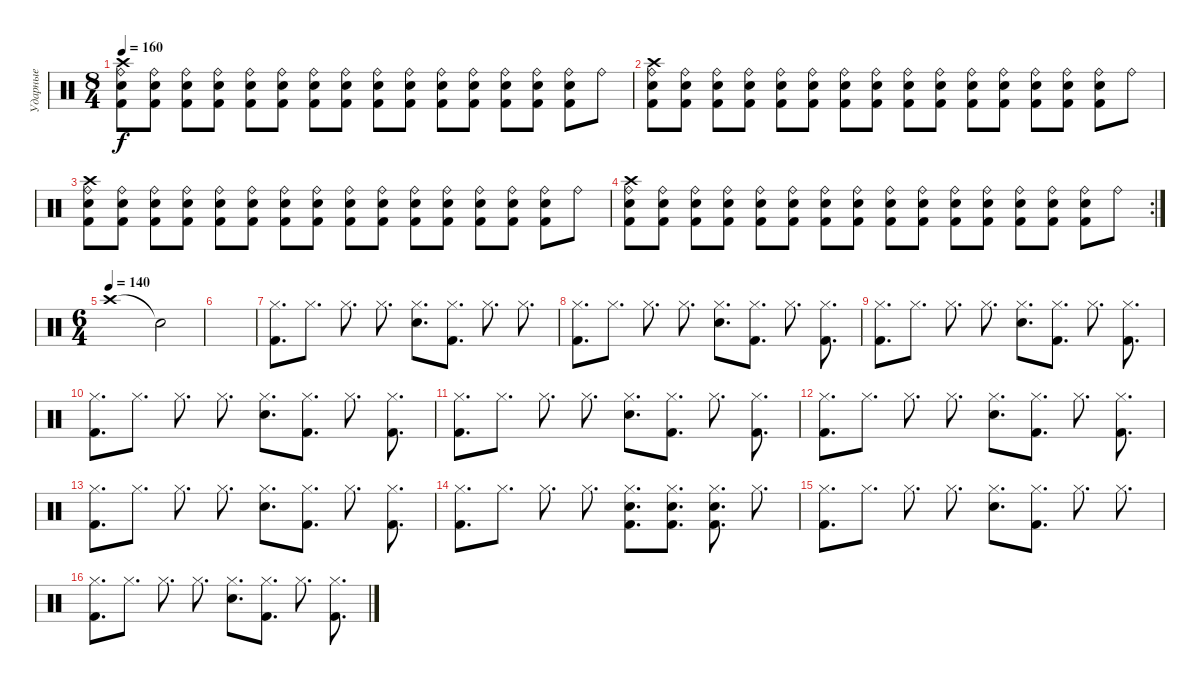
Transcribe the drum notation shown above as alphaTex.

\track ("Ударные" "Ударные") {instrument percussion}
\staff {score}
\articulation defaults
\ts (8 4)
\tempo 160
\clef neutral
\ks c
("Ride (bell)" "Crash high (hit)" "Kick (hit) 2" "Snare (hit) 2").8{dy f} ("Ride (bell)" "Kick (hit) 2" "Snare (hit) 2").8 ("Ride (bell)" "Kick (hit) 2" "Snare (hit) 2").8 ("Ride (bell)" "Kick (hit) 2" "Snare (hit) 2").8 ("Ride (bell)" "Kick (hit) 2" "Snare (hit) 2").8 ("Ride (bell)" "Kick (hit) 2" "Snare (hit) 2").8 ("Ride (bell)" "Kick (hit) 2" "Snare (hit) 2").8 ("Ride (bell)" "Kick (hit) 2" "Snare (hit) 2").8 ("Ride (bell)" "Snare (hit) 2" "Kick (hit) 2").8 ("Ride (bell)" "Snare (hit) 2" "Kick (hit) 2").8 ("Ride (bell)" "Snare (hit) 2" "Kick (hit) 2").8 ("Ride (bell)" "Snare (hit) 2" "Kick (hit) 2").8 ("Ride (bell)" "Snare (hit) 2" "Kick (hit) 2").8 ("Ride (bell)" "Snare (hit) 2" "Kick (hit) 2").8 ("Ride (bell)" "Snare (hit) 2" "Kick (hit) 2").8 "Ride (bell)".8 |
("Ride (bell)" "Crash high (hit)" "Kick (hit) 2" "Snare (hit) 2").8 ("Ride (bell)" "Kick (hit) 2" "Snare (hit) 2").8 ("Ride (bell)" "Kick (hit) 2" "Snare (hit) 2").8 ("Ride (bell)" "Kick (hit) 2" "Snare (hit) 2").8 ("Ride (bell)" "Kick (hit) 2" "Snare (hit) 2").8 ("Ride (bell)" "Kick (hit) 2" "Snare (hit) 2").8 ("Ride (bell)" "Kick (hit) 2" "Snare (hit) 2").8 ("Ride (bell)" "Kick (hit) 2" "Snare (hit) 2").8 ("Ride (bell)" "Snare (hit) 2" "Kick (hit) 2").8 ("Ride (bell)" "Snare (hit) 2" "Kick (hit) 2").8 ("Ride (bell)" "Snare (hit) 2" "Kick (hit) 2").8 ("Ride (bell)" "Snare (hit) 2" "Kick (hit) 2").8 ("Ride (bell)" "Snare (hit) 2" "Kick (hit) 2").8 ("Ride (bell)" "Snare (hit) 2" "Kick (hit) 2").8 ("Ride (bell)" "Snare (hit) 2" "Kick (hit) 2").8 "Ride (bell)".8 |
("Ride (bell)" "Crash high (hit)" "Kick (hit) 2" "Snare (hit) 2").8 ("Ride (bell)" "Kick (hit) 2" "Snare (hit) 2").8 ("Ride (bell)" "Kick (hit) 2" "Snare (hit) 2").8 ("Ride (bell)" "Kick (hit) 2" "Snare (hit) 2").8 ("Ride (bell)" "Kick (hit) 2" "Snare (hit) 2").8 ("Ride (bell)" "Kick (hit) 2" "Snare (hit) 2").8 ("Ride (bell)" "Kick (hit) 2" "Snare (hit) 2").8 ("Ride (bell)" "Kick (hit) 2" "Snare (hit) 2").8 ("Ride (bell)" "Snare (hit) 2" "Kick (hit) 2").8 ("Ride (bell)" "Snare (hit) 2" "Kick (hit) 2").8 ("Ride (bell)" "Snare (hit) 2" "Kick (hit) 2").8 ("Ride (bell)" "Snare (hit) 2" "Kick (hit) 2").8 ("Ride (bell)" "Snare (hit) 2" "Kick (hit) 2").8 ("Ride (bell)" "Snare (hit) 2" "Kick (hit) 2").8 ("Ride (bell)" "Snare (hit) 2" "Kick (hit) 2").8 "Ride (bell)".8 |
\rc 2
("Ride (bell)" "Crash high (hit)" "Kick (hit) 2" "Snare (hit) 2").8 ("Ride (bell)" "Kick (hit) 2" "Snare (hit) 2").8 ("Ride (bell)" "Kick (hit) 2" "Snare (hit) 2").8 ("Ride (bell)" "Kick (hit) 2" "Snare (hit) 2").8 ("Ride (bell)" "Kick (hit) 2" "Snare (hit) 2").8 ("Ride (bell)" "Kick (hit) 2" "Snare (hit) 2").8 ("Ride (bell)" "Kick (hit) 2" "Snare (hit) 2").8 ("Ride (bell)" "Kick (hit) 2" "Snare (hit) 2").8 ("Ride (bell)" "Snare (hit) 2" "Kick (hit) 2").8 ("Ride (bell)" "Snare (hit) 2" "Kick (hit) 2").8 ("Ride (bell)" "Snare (hit) 2" "Kick (hit) 2").8 ("Ride (bell)" "Snare (hit) 2" "Kick (hit) 2").8 ("Ride (bell)" "Snare (hit) 2" "Kick (hit) 2").8 ("Ride (bell)" "Snare (hit) 2" "Kick (hit) 2").8 ("Ride (bell)" "Snare (hit) 2" "Kick (hit) 2").8 "Ride (bell)".8 |
\ts (6 4)
\tempo (140)
"Crash high (hit)".1 "Snare (hit)"{t}.2 |
|
("Hi-Hat (closed)" "Kick (hit) 2").8{d} "Hi-Hat (closed)".8{d} "Hi-Hat (closed)".8{d} "Hi-Hat (closed)".8{d} ("Hi-Hat (closed)" "Snare (hit) 2").8{d} ("Hi-Hat (closed)" "Kick (hit) 2").8{d} "Hi-Hat (closed)".8{d} "Hi-Hat (closed)".8{d} |
("Hi-Hat (closed)" "Kick (hit) 2").8{d} "Hi-Hat (closed)".8{d} "Hi-Hat (closed)".8{d} "Hi-Hat (closed)".8{d} ("Hi-Hat (closed)" "Snare (hit) 2").8{d} ("Hi-Hat (closed)" "Kick (hit) 2").8{d} "Hi-Hat (closed)".8{d} ("Hi-Hat (closed)" "Kick (hit) 2").8{d} |
("Hi-Hat (closed)" "Kick (hit) 2").8{d} "Hi-Hat (closed)".8{d} "Hi-Hat (closed)".8{d} "Hi-Hat (closed)".8{d} ("Hi-Hat (closed)" "Snare (hit) 2").8{d} ("Hi-Hat (closed)" "Kick (hit) 2").8{d} "Hi-Hat (closed)".8{d} ("Hi-Hat (closed)" "Kick (hit) 2").8{d} |
("Hi-Hat (closed)" "Kick (hit) 2").8{d} "Hi-Hat (closed)".8{d} "Hi-Hat (closed)".8{d} "Hi-Hat (closed)".8{d} ("Hi-Hat (closed)" "Snare (hit) 2").8{d} ("Hi-Hat (closed)" "Kick (hit) 2").8{d} "Hi-Hat (closed)".8{d} ("Hi-Hat (closed)" "Kick (hit) 2").8{d} |
("Hi-Hat (closed)" "Kick (hit) 2").8{d} "Hi-Hat (closed)".8{d} "Hi-Hat (closed)".8{d} "Hi-Hat (closed)".8{d} ("Hi-Hat (closed)" "Snare (hit) 2").8{d} ("Hi-Hat (closed)" "Kick (hit) 2").8{d} "Hi-Hat (closed)".8{d} ("Hi-Hat (closed)" "Kick (hit) 2").8{d} |
("Hi-Hat (closed)" "Kick (hit) 2").8{d} "Hi-Hat (closed)".8{d} "Hi-Hat (closed)".8{d} "Hi-Hat (closed)".8{d} ("Hi-Hat (closed)" "Snare (hit) 2").8{d} ("Hi-Hat (closed)" "Kick (hit) 2").8{d} "Hi-Hat (closed)".8{d} ("Hi-Hat (closed)" "Kick (hit) 2").8{d} |
("Hi-Hat (closed)" "Kick (hit) 2").8{d} "Hi-Hat (closed)".8{d} "Hi-Hat (closed)".8{d} "Hi-Hat (closed)".8{d} ("Hi-Hat (closed)" "Snare (hit) 2").8{d} ("Hi-Hat (closed)" "Kick (hit) 2").8{d} "Hi-Hat (closed)".8{d} ("Hi-Hat (closed)" "Kick (hit) 2").8{d} |
("Hi-Hat (closed)" "Kick (hit) 2").8{d} "Hi-Hat (closed)".8{d} "Hi-Hat (closed)".8{d} "Hi-Hat (closed)".8{d} ("Hi-Hat (closed)" "Kick (hit) 2" "Snare (hit) 2").8{d} ("Hi-Hat (closed)" "Kick (hit) 2" "Snare (hit) 2").8{d} ("Hi-Hat (closed)" "Snare (hit) 2" "Kick (hit) 2").8{d} "Hi-Hat (closed)".8{d} |
("Hi-Hat (closed)" "Kick (hit) 2").8{d} "Hi-Hat (closed)".8{d} "Hi-Hat (closed)".8{d} "Hi-Hat (closed)".8{d} ("Hi-Hat (closed)" "Snare (hit) 2").8{d} ("Hi-Hat (closed)" "Kick (hit) 2").8{d} "Hi-Hat (closed)".8{d} "Hi-Hat (closed)".8{d} |
("Hi-Hat (closed)" "Kick (hit) 2").8{d} "Hi-Hat (closed)".8{d} "Hi-Hat (closed)".8{d} "Hi-Hat (closed)".8{d} ("Hi-Hat (closed)" "Snare (hit) 2").8{d} ("Hi-Hat (closed)" "Kick (hit) 2").8{d} "Hi-Hat (closed)".8{d} ("Hi-Hat (closed)" "Kick (hit) 2").8{d}
